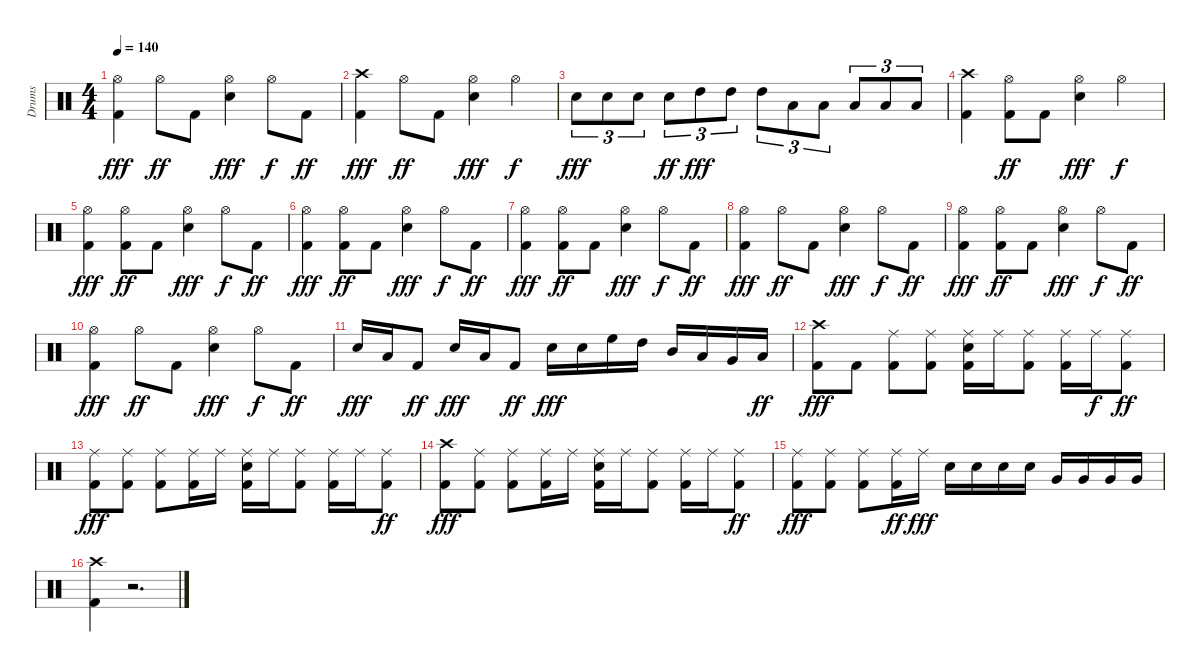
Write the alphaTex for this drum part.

\track ("Drums" "Drums") {instrument percussion}
\staff {score}
\articulation defaults
\ts (4 4)
\tempo 140
\clef neutral
\ks c
("Hi-Hat (open)" "Kick (hit) 2").4{dy fff} "Hi-Hat (open)".8{dy ff} "Kick (hit) 2".8 ("Hi-Hat (open)" "Electric Snare (hit)").4{dy fff} "Hi-Hat (open)".8{dy f} "Kick (hit) 2".8{dy ff} |
("Kick (hit) 2" "Crash high (hit)").4{dy fff} "Hi-Hat (open)".8{dy ff} "Kick (hit) 2".8 ("Hi-Hat (open)" "Electric Snare (hit)").4{dy fff} "Hi-Hat (open)".4{dy f} |
"Electric Snare (hit)".8{tu (3 2) dy fff} "Electric Snare (hit)".8{tu (3 2)} "Electric Snare (hit)".8{tu (3 2)} "Electric Snare (hit)".8{tu (3 2) dy ff} "High Tom (hit)".8{tu (3 2) dy fff} "High Tom (hit)".8{tu (3 2)} "High Tom (hit)".8{tu (3 2)} "Low Tom (hit)".8{tu (3 2)} "Low Tom (hit)".8{tu (3 2)} "Low Tom (hit)".8{tu (3 2)} "Low Floor Tom (hit)".8{tu (3 2)} "Low Floor Tom (hit)".8{tu (3 2)} |
("Kick (hit) 2" "Crash high (hit)").4 ("Hi-Hat (open)" "Kick (hit) 2").8{dy ff} "Kick (hit) 2".8 ("Hi-Hat (open)" "Electric Snare (hit)").4{dy fff} "Hi-Hat (open)".4{dy f} |
("Hi-Hat (open)" "Kick (hit) 2").4{dy fff} ("Hi-Hat (open)" "Kick (hit) 2").8{dy ff} "Kick (hit) 2".8 ("Hi-Hat (open)" "Electric Snare (hit)").4{dy fff} "Hi-Hat (open)".8{dy f} "Kick (hit) 2".8{dy ff} |
("Hi-Hat (open)" "Kick (hit) 2").4{dy fff} ("Hi-Hat (open)" "Kick (hit) 2").8{dy ff} "Kick (hit) 2".8 ("Hi-Hat (open)" "Electric Snare (hit)").4{dy fff} "Hi-Hat (open)".8{dy f} "Kick (hit) 2".8{dy ff} |
("Hi-Hat (open)" "Kick (hit) 2").4{dy fff} ("Hi-Hat (open)" "Kick (hit) 2").8{dy ff} "Kick (hit) 2".8 ("Hi-Hat (open)" "Electric Snare (hit)").4{dy fff} "Hi-Hat (open)".8{dy f} "Kick (hit) 2".8{dy ff} |
("Hi-Hat (open)" "Kick (hit) 2").4{dy fff} "Hi-Hat (open)".8{dy ff} "Kick (hit) 2".8 ("Hi-Hat (open)" "Electric Snare (hit)").4{dy fff} "Hi-Hat (open)".8{dy f} "Kick (hit) 2".8{dy ff} |
("Hi-Hat (open)" "Kick (hit) 2").4{dy fff} ("Hi-Hat (open)" "Kick (hit) 2").8{dy ff} "Kick (hit) 2".8 ("Hi-Hat (open)" "Electric Snare (hit)").4{dy fff} "Hi-Hat (open)".8{dy f} "Kick (hit) 2".8{dy ff} |
("Hi-Hat (open)" "Kick (hit) 2").4{dy fff} "Hi-Hat (open)".8{dy ff} "Kick (hit) 2".8 ("Hi-Hat (open)" "Electric Snare (hit)").4{dy fff} "Hi-Hat (open)".8{dy f} "Kick (hit) 2".8{dy ff} |
"Electric Snare (hit)".16{dy fff} "Low Tom (hit)".16 "Kick (hit) 2".8{dy ff} "Electric Snare (hit)".16{dy fff} "Low Tom (hit)".16 "Kick (hit) 2".8{dy ff} "Electric Snare (hit)".16{dy fff} "Electric Snare (hit)".16 "High Floor Tom (hit)".16 "High Tom (hit)".16 "Mid Tom (hit)".16 "Low Tom (hit)".16 "Very Low Tom (hit)".16 "Low Floor Tom (hit)".16{dy ff} |
("Kick (hit) 2" "Crash high (hit)").8{dy fff} "Kick (hit) 2".8 ("Ride (middle)" "Kick (hit) 2").8 ("Ride (middle)" "Kick (hit) 2").8 ("Ride (middle)" "Kick (hit) 2" "Electric Snare (hit)").16 "Ride (middle)".16 ("Ride (middle)" "Kick (hit) 2").8 ("Ride (middle)" "Kick (hit) 2").16 "Ride (middle)".16{dy f} ("Ride (middle)" "Kick (hit) 2").8{dy ff} |
("Ride (middle)" "Kick (hit) 2").8{dy fff} ("Ride (middle)" "Kick (hit) 2").8 ("Ride (middle)" "Kick (hit) 2").8 ("Ride (middle)" "Kick (hit) 2").16 "Ride (middle)".16 ("Ride (middle)" "Kick (hit) 2" "Electric Snare (hit)").16 "Ride (middle)".16 ("Ride (middle)" "Kick (hit) 2").8 ("Ride (middle)" "Kick (hit) 2").16 "Ride (middle)".16 ("Ride (middle)" "Kick (hit) 2").8{dy ff} |
("Kick (hit) 2" "Crash high (hit)").8{dy fff} ("Ride (middle)" "Kick (hit) 2").8 ("Ride (middle)" "Kick (hit) 2").8 ("Ride (middle)" "Kick (hit) 2").16 "Ride (middle)".16 ("Ride (middle)" "Kick (hit) 2" "Electric Snare (hit)").16 "Ride (middle)".16 ("Ride (middle)" "Kick (hit) 2").8 ("Ride (middle)" "Kick (hit) 2").16 "Ride (middle)".16 ("Ride (middle)" "Kick (hit) 2").8{dy ff} |
("Ride (middle)" "Kick (hit) 2").8{dy fff} ("Ride (middle)" "Kick (hit) 2").8 ("Ride (middle)" "Kick (hit) 2").8 ("Ride (middle)" "Kick (hit) 2").16{dy ff} "Ride (middle)".16{dy fff} "Electric Snare (hit)".16 "Electric Snare (hit)".16 "Electric Snare (hit)".16 "Electric Snare (hit)".16 "Very Low Tom (hit)".16 "Very Low Tom (hit)".16 "Very Low Tom (hit)".16 "Very Low Tom (hit)".16 |
("Kick (hit) 2" "Crash high (hit)").4 r.2{d}
